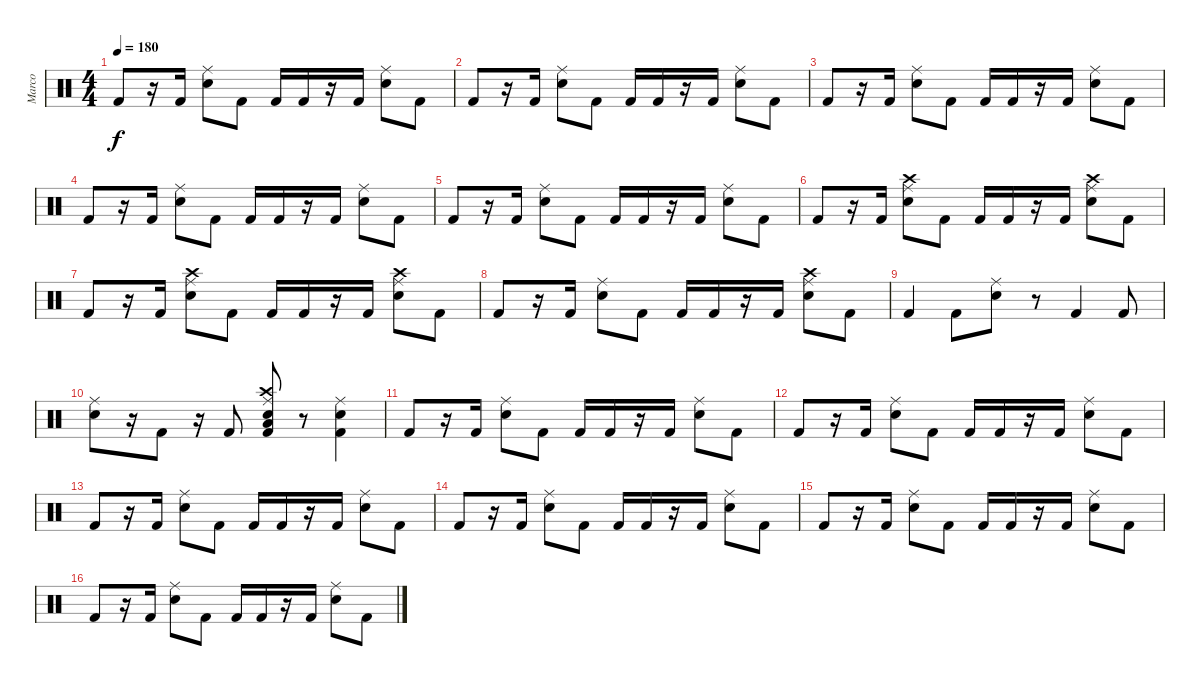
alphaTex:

\track ("Marco" "Marco") {instrument percussion}
\staff {score}
\articulation defaults
\ts (4 4)
\tempo 180
\clef neutral
\ks c "Kick (hit) 2".8{dy f}
r.16 "Kick (hit) 2".16 ("Electric Snare (hit)" "Ride (middle)").8 "Kick (hit) 2".8 "Kick (hit) 2".16 "Kick (hit) 2".16 r.16 "Kick (hit) 2".16 ("Electric Snare (hit)" "Ride (middle)").8 "Kick (hit) 2".8 |
"Kick (hit) 2".8 r.16 "Kick (hit) 2".16 ("Electric Snare (hit)" "Ride (middle)").8 "Kick (hit) 2".8 "Kick (hit) 2".16 "Kick (hit) 2".16 r.16 "Kick (hit) 2".16 ("Electric Snare (hit)" "Ride (middle)").8 "Kick (hit) 2".8 |
"Kick (hit) 2".8 r.16 "Kick (hit) 2".16 ("Electric Snare (hit)" "Ride (middle)").8 "Kick (hit) 2".8 "Kick (hit) 2".16 "Kick (hit) 2".16 r.16 "Kick (hit) 2".16 ("Electric Snare (hit)" "Ride (middle)").8 "Kick (hit) 2".8 |
"Kick (hit) 2".8 r.16 "Kick (hit) 2".16 ("Electric Snare (hit)" "Ride (middle)").8 "Kick (hit) 2".8 "Kick (hit) 2".16 "Kick (hit) 2".16 r.16 "Kick (hit) 2".16 ("Electric Snare (hit)" "Ride (middle)").8 "Kick (hit) 2".8 |
"Kick (hit) 2".8 r.16 "Kick (hit) 2".16 ("Electric Snare (hit)" "Ride (middle)").8 "Kick (hit) 2".8 "Kick (hit) 2".16 "Kick (hit) 2".16 r.16 "Kick (hit) 2".16 ("Electric Snare (hit)" "Ride (middle)").8 "Kick (hit) 2".8 |
"Kick (hit) 2".8 r.16 "Kick (hit) 2".16 ("Electric Snare (hit)" "Ride (middle)" "Crash high (hit)").8 "Kick (hit) 2".8 "Kick (hit) 2".16 "Kick (hit) 2".16 r.16 "Kick (hit) 2".16 ("Electric Snare (hit)" "Ride (middle)" "Crash high (hit)").8 "Kick (hit) 2".8 |
"Kick (hit) 2".8 r.16 "Kick (hit) 2".16 ("Electric Snare (hit)" "Ride (middle)" "Crash high (hit)").8 "Kick (hit) 2".8 "Kick (hit) 2".16 "Kick (hit) 2".16 r.16 "Kick (hit) 2".16 ("Electric Snare (hit)" "Ride (middle)" "Crash high (hit)").8 "Kick (hit) 2".8 |
"Kick (hit) 2".8 r.16 "Kick (hit) 2".16 ("Electric Snare (hit)" "Ride (middle)").8 "Kick (hit) 2".8 "Kick (hit) 2".16 "Kick (hit) 2".16 r.16 "Kick (hit) 2".16 ("Electric Snare (hit)" "Ride (middle)" "Crash high (hit)").8 "Kick (hit) 2".8 |
"Kick (hit) 2".4 "Kick (hit) 2".8 ("Electric Snare (hit)" "Ride (middle)").8 r.8 "Kick (hit) 2".4 "Kick (hit) 2".8 |
("Electric Snare (hit)" "Ride (middle)").8 r.16 "Kick (hit) 2".8 r.16 "Kick (hit) 2".8 ("Kick (hit) 2" "Ride (middle)" "Electric Snare (hit)" "Low Tom (hit)" "Crash high (hit)").8 r.8 ("Kick (hit) 2" "Electric Snare (hit)" "Ride (middle)").4 |
"Kick (hit) 2".8 r.16 "Kick (hit) 2".16 ("Electric Snare (hit)" "Ride (middle)").8 "Kick (hit) 2".8 "Kick (hit) 2".16 "Kick (hit) 2".16 r.16 "Kick (hit) 2".16 ("Electric Snare (hit)" "Ride (middle)").8 "Kick (hit) 2".8 |
"Kick (hit) 2".8 r.16 "Kick (hit) 2".16 ("Electric Snare (hit)" "Ride (middle)").8 "Kick (hit) 2".8 "Kick (hit) 2".16 "Kick (hit) 2".16 r.16 "Kick (hit) 2".16 ("Electric Snare (hit)" "Ride (middle)").8 "Kick (hit) 2".8 |
"Kick (hit) 2".8 r.16 "Kick (hit) 2".16 ("Electric Snare (hit)" "Ride (middle)").8 "Kick (hit) 2".8 "Kick (hit) 2".16 "Kick (hit) 2".16 r.16 "Kick (hit) 2".16 ("Electric Snare (hit)" "Ride (middle)").8 "Kick (hit) 2".8 |
"Kick (hit) 2".8 r.16 "Kick (hit) 2".16 ("Electric Snare (hit)" "Ride (middle)").8 "Kick (hit) 2".8 "Kick (hit) 2".16 "Kick (hit) 2".16 r.16 "Kick (hit) 2".16 ("Electric Snare (hit)" "Ride (middle)").8 "Kick (hit) 2".8 |
"Kick (hit) 2".8 r.16 "Kick (hit) 2".16 ("Electric Snare (hit)" "Ride (middle)").8 "Kick (hit) 2".8 "Kick (hit) 2".16 "Kick (hit) 2".16 r.16 "Kick (hit) 2".16 ("Electric Snare (hit)" "Ride (middle)").8 "Kick (hit) 2".8 |
"Kick (hit) 2".8 r.16 "Kick (hit) 2".16 ("Electric Snare (hit)" "Ride (middle)").8 "Kick (hit) 2".8 "Kick (hit) 2".16 "Kick (hit) 2".16 r.16 "Kick (hit) 2".16 ("Electric Snare (hit)" "Ride (middle)").8 "Kick (hit) 2".8
